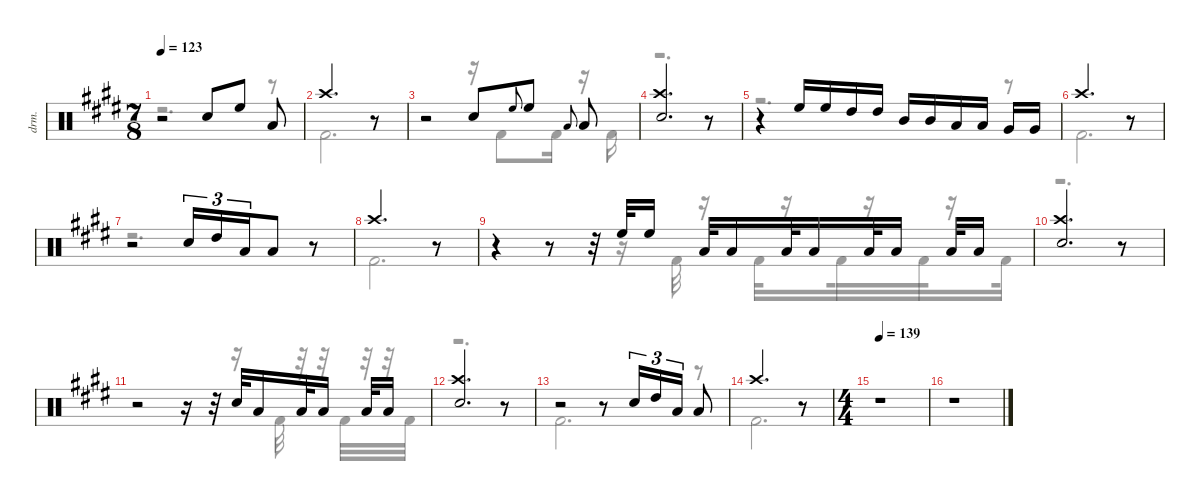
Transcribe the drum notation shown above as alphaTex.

\defaultSystemsLayout 4
\hideDynamics
\bracketExtendMode nobrackets
\track ("Drums" "drm.") {instrument percussion}
\staff {score}
\articulation defaults
\voice
\ts (7 8)
\tempo 123
\clef neutral
\ks e
r.2{dy mf} "Snare (hit) 2"{acc forcenatural}.8{beam merge} "High Floor Tom (hit)"{acc forcenatural}.8{beam split} "Low Tom (hit)"{acc forcenatural}.8 |
\scale
0.880095 "Crash high (hit)"{acc forcenatural}.2{d} r.8 |
\scale
1.16666 r.2 "Snare (hit) 2"{acc forcenatural}.8{beam merge} "High Floor Tom (hit)"{acc forcenatural}.8{gr onbeat beam merge} "High Floor Tom (hit)"{acc forcenatural}.8{beam split} "Low Tom (hit)"{acc forcenatural}.8{gr onbeat beam split} "Low Tom (hit)"{acc forcenatural}.8 |
\scale
0.964818 ("Crash high (hit)"{acc forcenatural} "Snare (hit) 2"{acc forcenatural}).2{d} r.8 |
\scale
0.988424 r.4 "High Floor Tom (hit)"{acc forcenatural}.16{beam merge} "High Floor Tom (hit)"{acc forcenatural}.16{beam merge} "High Tom (hit)"{acc forcenatural}.16 "High Tom (hit)"{acc forcenatural}.16{beam split} "Mid Tom (hit)"{acc forcenatural}.16 "Mid Tom (hit)"{acc forcenatural}.16{beam merge} "Low Tom (hit)"{acc forcenatural}.16 "Low Tom (hit)"{acc forcenatural}.16{beam split} "Very Low Tom (hit)"{acc forcenatural}.16 "Very Low Tom (hit)"{acc forcenatural}.16 |
"Crash high (hit)"{acc forcenatural}.2{d} r.8 |
r.2 "Snare (hit) 2"{acc forcenatural}.16{tu (3 2)} "High Tom (hit)"{acc forcenatural}.16{tu (3 2)} "Low Tom (hit)"{acc forcenatural}.16{tu (3 2) beam merge} "Low Tom (hit)"{acc forcenatural}.8 r.8 |
"Crash high (hit)"{acc forcenatural}.2{d} r.8 |
r.4 r.8 r.32 "High Floor Tom (hit)"{acc forcenatural}.32 "High Floor Tom (hit)"{acc forcenatural}.16{beam split} "Low Tom (hit)"{acc forcenatural}.32 "Low Tom (hit)"{acc forcenatural}.16 "Low Tom (hit)"{acc forcenatural}.32 "Low Tom (hit)"{acc forcenatural}.16{beam merge} "Low Tom (hit)"{acc forcenatural}.32 "Low Tom (hit)"{acc forcenatural}.16{beam split} "Low Tom (hit)"{acc forcenatural}.32 "Low Tom (hit)"{acc forcenatural}.16 |
\scale
0.853613 ("Crash high (hit)"{acc forcenatural} "Snare (hit) 2"{acc forcenatural}).2{d} r.8 |
\scale
1.5103 r.2 r.16 r.32 "Snare (hit) 2"{acc forcenatural}.32{beam merge} "Low Tom (hit)"{acc forcenatural}.16 "Low Tom (hit)"{acc forcenatural}.32 "Low Tom (hit)"{acc forcenatural}.16{beam split} "Low Tom (hit)"{acc forcenatural}.32 "Low Tom (hit)"{acc forcenatural}.16 |
\scale
0.818041 ("Crash high (hit)"{acc forcenatural} "Snare (hit) 2"{acc forcenatural}).2{d} r.8 |
\scale
0.818041 r.2 r.8 "Snare (hit) 2"{acc forcenatural}.16{tu (3 2)} "High Tom (hit)"{acc forcenatural}.16{tu (3 2)} "Low Tom (hit)"{acc forcenatural}.16{tu (3 2)} "Low Tom (hit)"{acc forcenatural}.8 |
"Crash high (hit)"{acc forcenatural}.2{d} r.8 |
\ts (4 4)
\beaming (8 2 2 2 2)
\tempo 139
r.1 |
r.1
\voice
\clef neutral
\ottava regular
\simile none
\ks e
r.2{d dy mf} r.8 |
\scale
0.880095 "Kick (hit) 2"{acc forcenatural}.2{d} r.8 |
\scale
1.16666 r.2 r.16 "Kick (hit) 2"{acc forcenatural}.8{beam merge} "Kick (hit) 2"{acc forcenatural}.16{beam split} r.16{beam split} "Kick (hit) 2"{acc forcenatural}.16 |
\scale
0.964818 r.2{d} r.8 |
\scale
0.988424 r.2{d} r.8 |
"Kick (hit) 2"{acc forcenatural}.2{d} r.8 |
r.2{d} r.8 |
"Kick (hit) 2"{acc forcenatural}.2{d} r.8 |
r.4 r.8 r.32 r.16 "Kick (hit) 2"{acc forcenatural}.32{beam split} r.16{beam split} "Kick (hit) 2"{acc forcenatural}.32{beam splitsecondary} r.16{beam merge} "Kick (hit) 2"{acc forcenatural}.32 r.16 "Kick (hit) 2"{acc forcenatural}.32{beam splitsecondary} r.16{beam merge} "Kick (hit) 2"{acc forcenatural}.32 |
\scale
0.853613 r.2{d} r.8 |
\scale
1.5103 r.2 r.16 r.32 r.16 "Kick (hit) 2"{acc forcenatural}.32{beam split} r.32{beam split} r.32{beam split} "Kick (hit) 2"{acc forcenatural}.32 r.32 r.32 "Kick (hit) 2"{acc forcenatural}.32 |
\scale
0.818041 r.2{d} r.8 |
\scale
0.818041 "Kick (hit) 2"{acc forcenatural}.2{d} r.8 |
"Kick (hit) 2"{acc forcenatural}.2{d} r.8 |
r.1 |
r.1
